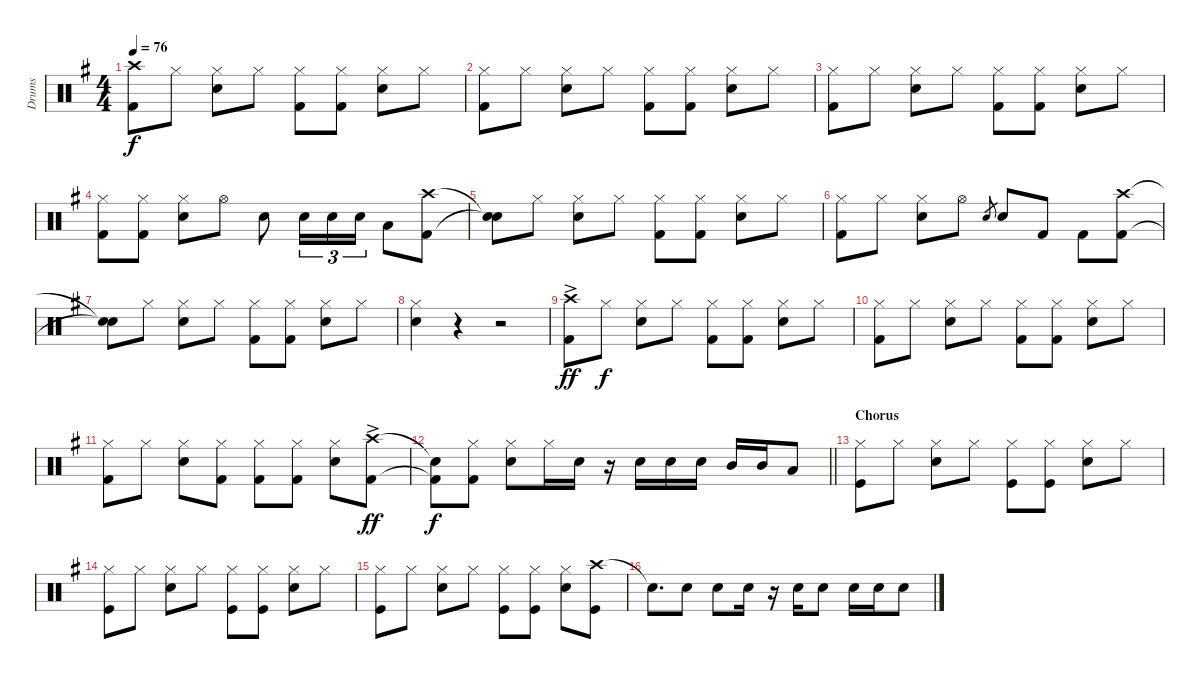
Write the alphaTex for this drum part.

\track ("Drums" "Drums") {instrument percussion}
\staff {score}
\articulation defaults
\ts (4 4)
\tempo 76
\clef neutral
\ks eminor
("Crash high (hit)" "Kick (hit) 2").8{dy f} "Hi-Hat (closed)".8 ("Hi-Hat (closed)" "Snare (hit) 2").8 "Hi-Hat (closed)".8 ("Hi-Hat (closed)" "Kick (hit) 2").8 ("Hi-Hat (closed)" "Kick (hit) 2").8 ("Hi-Hat (closed)" "Snare (hit) 2").8 "Hi-Hat (closed)".8 |
("Hi-Hat (closed)" "Kick (hit) 2").8 "Hi-Hat (closed)".8 ("Hi-Hat (closed)" "Snare (hit) 2").8 "Hi-Hat (closed)".8 ("Hi-Hat (closed)" "Kick (hit) 2").8 ("Hi-Hat (closed)" "Kick (hit) 2").8 ("Hi-Hat (closed)" "Snare (hit) 2").8 "Hi-Hat (closed)".8 |
("Hi-Hat (closed)" "Kick (hit) 2").8 "Hi-Hat (closed)".8 ("Hi-Hat (closed)" "Snare (hit) 2").8 "Hi-Hat (closed)".8 ("Hi-Hat (closed)" "Kick (hit) 2").8 ("Hi-Hat (closed)" "Kick (hit) 2").8 ("Hi-Hat (closed)" "Snare (hit) 2").8 "Hi-Hat (closed)".8 |
("Hi-Hat (closed)" "Kick (hit) 2").8 ("Hi-Hat (closed)" "Kick (hit) 2").8 ("Hi-Hat (closed)" "Snare (hit) 2").8 "Hi-Hat (open)".8 "Snare (hit) 2".8 "Snare (hit) 2".16{tu (3 2)} "Snare (hit) 2".16{tu (3 2)} "Snare (hit) 2".16{tu (3 2)} "Low Tom (hit)".8 ("Crash high (hit)" "Kick (hit) 2").8 |
("Snare (hit)"{t} "Snare (hit)"{t}).8 "Hi-Hat (closed)".8 ("Hi-Hat (closed)" "Snare (hit) 2").8 "Hi-Hat (closed)".8 ("Hi-Hat (closed)" "Kick (hit) 2").8 ("Hi-Hat (closed)" "Kick (hit) 2").8 ("Hi-Hat (closed)" "Snare (hit) 2").8 "Hi-Hat (closed)".8 |
("Hi-Hat (closed)" "Kick (hit) 2").8 "Hi-Hat (closed)".8 ("Hi-Hat (closed)" "Snare (hit) 2").8 "Hi-Hat (open)".8 "Snare (hit) 2".8{gr} "Snare (hit) 2".8 "Kick (hit) 2".8 "Kick (hit) 2".8 ("Crash high (hit)" "Kick (hit) 2").8 |
("Snare (hit)"{t} "Snare (hit)"{t}).8 "Hi-Hat (closed)".8 ("Hi-Hat (closed)" "Snare (hit) 2").8 "Hi-Hat (closed)".8 ("Hi-Hat (closed)" "Kick (hit) 2").8 ("Hi-Hat (closed)" "Kick (hit) 2").8 ("Hi-Hat (closed)" "Snare (hit) 2").8 "Hi-Hat (closed)".8 |
("Hi-Hat (closed)" "Snare (hit) 2").4 r.4 r.2 |
("Crash high (hit)"{ac} "Kick (hit) 2").8{dy ff} "Hi-Hat (closed)".8{dy f} ("Hi-Hat (closed)" "Snare (hit) 2").8 "Hi-Hat (closed)".8 ("Hi-Hat (closed)" "Kick (hit) 2").8 ("Hi-Hat (closed)" "Kick (hit) 2").8 ("Hi-Hat (closed)" "Snare (hit) 2").8 "Hi-Hat (closed)".8 |
("Hi-Hat (closed)" "Kick (hit) 2").8 "Hi-Hat (closed)".8 ("Hi-Hat (closed)" "Snare (hit) 2").8 "Hi-Hat (closed)".8 ("Hi-Hat (closed)" "Kick (hit) 2").8 ("Hi-Hat (closed)" "Kick (hit) 2").8 ("Hi-Hat (closed)" "Snare (hit) 2").8 "Hi-Hat (closed)".8 |
("Hi-Hat (closed)" "Kick (hit) 2").8 "Hi-Hat (closed)".8 ("Hi-Hat (closed)" "Snare (hit) 2").8 ("Hi-Hat (closed)" "Kick (hit) 2").8 ("Hi-Hat (closed)" "Kick (hit) 2").8 ("Hi-Hat (closed)" "Kick (hit) 2").8 ("Hi-Hat (closed)" "Snare (hit) 2").8 ("Crash high (hit)"{ac} "Kick (hit) 2").8{dy ff} |
\barLineRight lightlight
("Snare (hit)"{t} "Kick (hit) 2"{t}).8{dy f} ("Hi-Hat (closed)" "Kick (hit) 2").8 ("Hi-Hat (closed)" "Snare (hit) 2").8 "Hi-Hat (closed)".16 "Snare (hit) 2".16 r.16 "Snare (hit) 2".16 "Snare (hit) 2".16 "Snare (hit) 2".16 "Mid Tom (hit)".16 "Mid Tom (hit)".16 "Low Tom (hit)".8 |
\section ("" "Chorus")
("Hi-Hat (closed)" "Kick (hit)").8 "Hi-Hat (closed)".8 ("Hi-Hat (closed)" "Snare (hit) 2").8 "Hi-Hat (closed)".8 ("Hi-Hat (closed)" "Kick (hit)").8 ("Hi-Hat (closed)" "Kick (hit)").8 ("Hi-Hat (closed)" "Snare (hit) 2").8 "Hi-Hat (closed)".8 |
("Hi-Hat (closed)" "Kick (hit)").8 "Hi-Hat (closed)".8 ("Hi-Hat (closed)" "Snare (hit) 2").8 "Hi-Hat (closed)".8 ("Hi-Hat (closed)" "Kick (hit)").8 ("Hi-Hat (closed)" "Kick (hit)").8 ("Hi-Hat (closed)" "Snare (hit) 2").8 "Hi-Hat (closed)".8 |
("Hi-Hat (closed)" "Kick (hit)").8 "Hi-Hat (closed)".8 ("Hi-Hat (closed)" "Snare (hit) 2").8 "Hi-Hat (closed)".8 ("Hi-Hat (closed)" "Kick (hit)").8 ("Hi-Hat (closed)" "Kick (hit)").8 ("Hi-Hat (closed)" "Snare (hit) 2").8 ("Crash high (hit)" "Kick (hit)").8 |
"Snare (hit)"{t}.8{d} "Snare (hit) 2".8 "Snare (hit) 2".8 "Snare (hit) 2".16 r.16 "Snare (hit) 2".16 "Snare (hit) 2".8 "Snare (hit) 2".16 "Snare (hit) 2".16 "Snare (hit) 2".8
